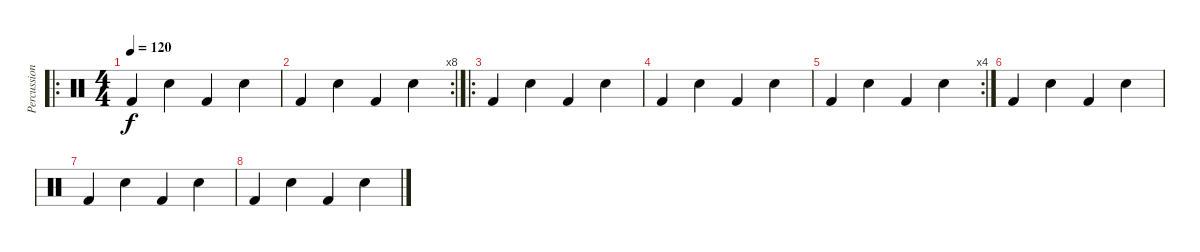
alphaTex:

\track ("Percussions" "Percussion") {instrument percussion}
\staff {score}
\articulation defaults
\ro
\ts (4 4)
\tempo 120
\clef neutral
\ks c "Kick (hit) 2".4{dy f} "Electric Snare (hit)".4 "Kick (hit) 2".4 "Electric Snare (hit)".4
|
\rc 8 "Kick (hit) 2".4 "Electric Snare (hit)".4 "Kick (hit) 2".4 "Electric Snare (hit)".4
|
\ro "Kick (hit) 2".4 "Electric Snare (hit)".4 "Kick (hit) 2".4 "Electric Snare (hit)".4
|
"Kick (hit) 2".4 "Electric Snare (hit)".4 "Kick (hit) 2".4 "Electric Snare (hit)".4 |
\rc 4 "Kick (hit) 2".4 "Electric Snare (hit)".4 "Kick (hit) 2".4 "Electric Snare (hit)".4
|
"Kick (hit) 2".4 "Electric Snare (hit)".4 "Kick (hit) 2".4 "Electric Snare (hit)".4 |
"Kick (hit) 2".4 "Electric Snare (hit)".4 "Kick (hit) 2".4 "Electric Snare (hit)".4 |
"Kick (hit) 2".4 "Electric Snare (hit)".4 "Kick (hit) 2".4 "Electric Snare (hit)".4
